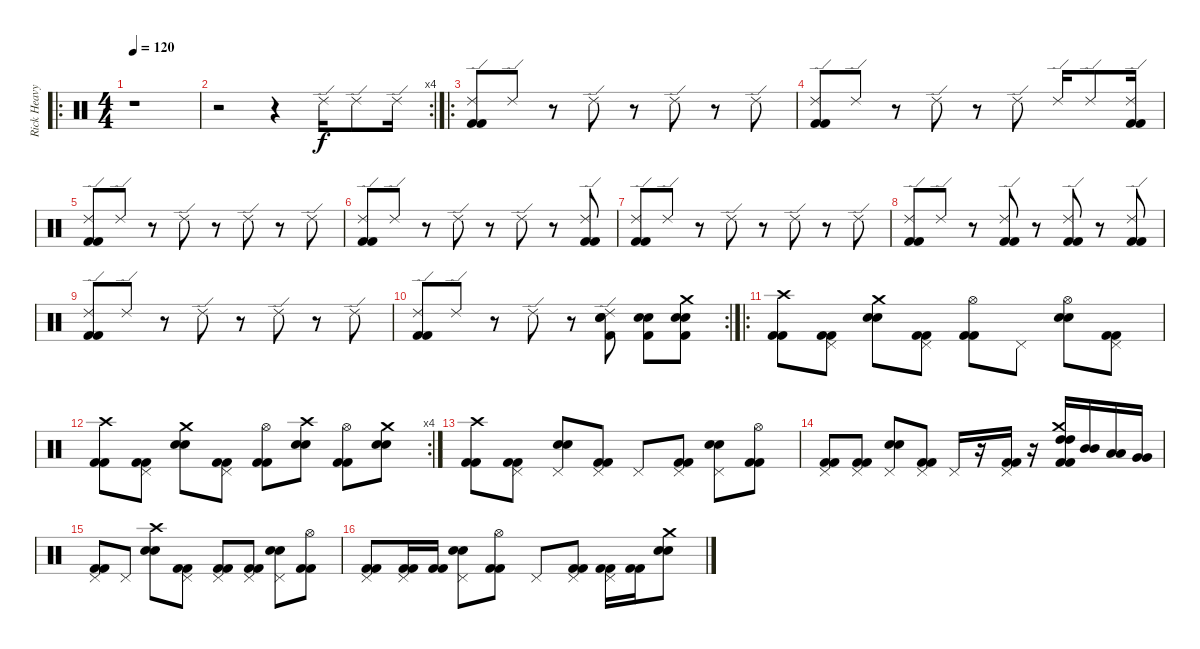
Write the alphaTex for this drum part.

\track ("Rick Heavy" "Rick Heavy") {instrument percussion}
\staff {score}
\articulation defaults
\ro
\ts (4 4)
\tempo 120
\clef neutral
\ks c
r.1{dy f} |
\rc 4
r.2 r.4 "Ride (edge) 2".16 "Ride (edge) 2".8 "Ride (edge) 2".16 |
\ro
("Ride (edge) 2" "Kick (hit) 2" "Kick (hit) 2").8 "Ride (edge) 2".8 r.8 "Ride (edge) 2".8 r.8 "Ride (edge) 2".8 r.8 "Ride (edge) 2".8 |
("Ride (edge) 2" "Kick (hit) 2" "Kick (hit) 2").8 "Ride (edge) 2".8 r.8 "Ride (edge) 2".8 r.8 "Ride (edge) 2".8 "Ride (edge) 2".16 "Ride (edge) 2".8 ("Ride (edge) 2" "Kick (hit) 2" "Kick (hit) 2").16 |
("Ride (edge) 2" "Kick (hit) 2" "Kick (hit) 2").8 "Ride (edge) 2".8 r.8 "Ride (edge) 2".8 r.8 "Ride (edge) 2".8 r.8 "Ride (edge) 2".8 |
("Ride (edge) 2" "Kick (hit) 2" "Kick (hit) 2").8 "Ride (edge) 2".8 r.8 "Ride (edge) 2".8 r.8 "Ride (edge) 2".8 r.8 ("Ride (edge) 2" "Kick (hit) 2" "Kick (hit) 2").8 |
("Ride (edge) 2" "Kick (hit) 2" "Kick (hit) 2").8 "Ride (edge) 2".8 r.8 "Ride (edge) 2".8 r.8 "Ride (edge) 2".8 r.8 "Ride (edge) 2".8 |
("Ride (edge) 2" "Kick (hit) 2" "Kick (hit) 2").8 "Ride (edge) 2".8 r.8 ("Ride (edge) 2" "Kick (hit) 2" "Kick (hit) 2").8 r.8 ("Ride (edge) 2" "Kick (hit) 2" "Kick (hit) 2").8 r.8 ("Ride (edge) 2" "Kick (hit) 2" "Kick (hit) 2").8 |
("Ride (edge) 2" "Kick (hit) 2" "Kick (hit) 2").8 "Ride (edge) 2".8 r.8 "Ride (edge) 2".8 r.8 "Ride (edge) 2".8 r.8 "Ride (edge) 2".8 |
\rc 2
("Ride (edge) 2" "Kick (hit) 2" "Kick (hit) 2").8 "Ride (edge) 2".8 r.8 "Ride (edge) 2".8 r.8 ("Ride (edge) 2" "Snare (hit) 2" "Electric Snare (hit)" "Kick (hit) 2").8 ("Snare (hit) 2" "Electric Snare (hit)" "Kick (hit) 2").8 ("Crash medium (hit)" "Snare (hit) 2" "Electric Snare (hit)" "Kick (hit) 2").8 |
\ro
("Crash high (hit)" "Kick (hit) 2" "Kick (hit) 2").8 ("Pedal Hi-Hat (hit)" "Kick (hit) 2" "Kick (hit) 2").8 ("Crash medium (hit)" "Snare (hit) 2" "Electric Snare (hit)").8 ("Pedal Hi-Hat (hit)" "Kick (hit) 2" "Kick (hit) 2").8 ("Hi-Hat (open)" "Kick (hit) 2" "Kick (hit) 2").8 "Pedal Hi-Hat (hit)".8 ("Hi-Hat (open)" "Electric Snare (hit)" "Snare (hit) 2").8 ("Pedal Hi-Hat (hit)" "Kick (hit) 2" "Kick (hit) 2").8 |
\rc 4
("Crash high (hit)" "Kick (hit) 2" "Kick (hit) 2").8 ("Pedal Hi-Hat (hit)" "Kick (hit) 2" "Kick (hit) 2").8 ("Crash medium (hit)" "Snare (hit) 2" "Electric Snare (hit)").8 ("Pedal Hi-Hat (hit)" "Kick (hit) 2" "Kick (hit) 2").8 ("Hi-Hat (open)" "Kick (hit) 2" "Kick (hit) 2").8 ("Crash high (hit)" "Electric Snare (hit)" "Snare (hit) 2").8 ("Hi-Hat (open)" "Kick (hit) 2" "Kick (hit) 2").8 ("Crash medium (hit)" "Electric Snare (hit)" "Snare (hit) 2").8 |
("Crash high (hit)" "Kick (hit) 2" "Kick (hit) 2").8 ("Pedal Hi-Hat (hit)" "Kick (hit) 2" "Kick (hit) 2").8 ("Pedal Hi-Hat (hit)" "Electric Snare (hit)" "Snare (hit) 2").8 ("Pedal Hi-Hat (hit)" "Kick (hit) 2" "Kick (hit) 2").8 "Pedal Hi-Hat (hit)".8 ("Pedal Hi-Hat (hit)" "Kick (hit) 2" "Kick (hit) 2").8 ("Pedal Hi-Hat (hit)" "Electric Snare (hit)" "Snare (hit) 2").8 ("Hi-Hat (open)" "Kick (hit) 2" "Kick (hit) 2").8 |
("Pedal Hi-Hat (hit)" "Kick (hit) 2" "Kick (hit) 2").8 ("Pedal Hi-Hat (hit)" "Kick (hit) 2" "Kick (hit) 2").8 ("Pedal Hi-Hat (hit)" "Electric Snare (hit)" "Snare (hit) 2").8 ("Pedal Hi-Hat (hit)" "Kick (hit) 2" "Kick (hit) 2").8 "Pedal Hi-Hat (hit)".16 r.16 ("Pedal Hi-Hat (hit)" "Kick (hit) 2" "Kick (hit) 2").16 r.16 ("Crash medium (hit)" "Kick (hit) 2" "High Tom (hit)" "High Tom (hit)" "Kick (hit) 2").16 ("Mid Tom (hit)" "Mid Tom (hit)").16 ("Low Tom (hit)" "Low Tom (hit)").16 ("Very Low Tom (hit)" "Very Low Tom (hit)").16 |
("Pedal Hi-Hat (hit)" "Kick (hit) 2" "Kick (hit) 2").8 "Pedal Hi-Hat (hit)".8 ("Crash high (hit)" "Electric Snare (hit)" "Snare (hit) 2").8 ("Pedal Hi-Hat (hit)" "Kick (hit) 2" "Kick (hit) 2").8 ("Pedal Hi-Hat (hit)" "Kick (hit) 2" "Kick (hit) 2").8 ("Pedal Hi-Hat (hit)" "Kick (hit) 2" "Kick (hit) 2").8 ("Pedal Hi-Hat (hit)" "Electric Snare (hit)" "Snare (hit) 2").8 ("Hi-Hat (open)" "Kick (hit) 2" "Kick (hit) 2").8 |
("Pedal Hi-Hat (hit)" "Kick (hit) 2" "Kick (hit) 2").8 ("Pedal Hi-Hat (hit)" "Kick (hit) 2" "Kick (hit) 2").16 ("Kick (hit) 2" "Kick (hit) 2").16 ("Pedal Hi-Hat (hit)" "Electric Snare (hit)" "Snare (hit) 2").8 ("Hi-Hat (open)" "Kick (hit) 2" "Kick (hit) 2").8 "Pedal Hi-Hat (hit)".8 ("Pedal Hi-Hat (hit)" "Kick (hit) 2" "Kick (hit) 2").8 ("Pedal Hi-Hat (hit)" "Kick (hit) 2" "Kick (hit) 2").16 ("Kick (hit) 2" "Kick (hit) 2").16 ("Crash medium (hit)" "Electric Snare (hit)" "Snare (hit) 2").8
